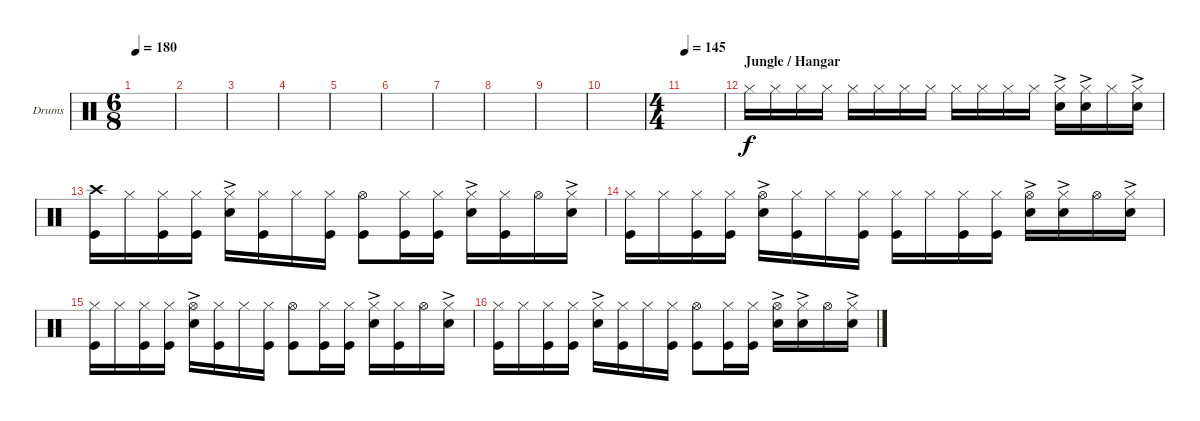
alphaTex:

\defaultSystemsLayout 4
\bracketExtendMode groupsimilarinstruments
\firstSystemTrackNameOrientation horizontal
\otherSystemsTrackNameOrientation horizontal
\track ("Drumkit" "Drums") {instrument percussion}
\staff {score}
\articulation defaults
\ts (6 8)
\tempo 180
\clef neutral
\ks c
|
|
|
|
|
|
|
|
|
|
\ts (4 4)
\tempo 145
|
\section ("" "Jungle / Hangar")
"Hi-Hat (closed)".16 "Hi-Hat (closed)".16 "Hi-Hat (closed)".16 "Hi-Hat (closed)".16 "Hi-Hat (closed)".16 "Hi-Hat (closed)".16 "Hi-Hat (closed)".16 "Hi-Hat (closed)".16 "Hi-Hat (closed)".16 "Hi-Hat (closed)".16 "Hi-Hat (closed)".16 "Hi-Hat (closed)".16 ("Hi-Hat (closed)" "Snare (hit) 2"{ac}).16 ("Hi-Hat (closed)" "Snare (hit) 2"{ac}).16 "Hi-Hat (closed)".16 ("Hi-Hat (closed)" "Snare (hit) 2"{ac}).16 |
("Kick (hit)" "Crash high (hit)").16 "Hi-Hat (closed)".16 ("Kick (hit)" "Hi-Hat (closed)").16 ("Kick (hit)" "Hi-Hat (closed)").16 ("Snare (hit) 2"{ac} "Hi-Hat (closed)").16 ("Kick (hit)" "Hi-Hat (closed)").16 "Hi-Hat (closed)".16 ("Kick (hit)" "Hi-Hat (closed)").16 ("Kick (hit)" "Hi-Hat (open)").8 ("Kick (hit)" "Hi-Hat (closed)").16 ("Kick (hit)" "Hi-Hat (closed)").16 ("Snare (hit) 2"{ac} "Hi-Hat (closed)").16 ("Kick (hit)" "Hi-Hat (closed)").16 "Hi-Hat (open)".16 ("Snare (hit) 2"{ac} "Hi-Hat (closed)").16 |
("Kick (hit)" "Hi-Hat (closed)").16 "Hi-Hat (closed)".16 ("Kick (hit)" "Hi-Hat (closed)").16 ("Kick (hit)" "Hi-Hat (closed)").16 ("Snare (hit) 2"{ac} "Hi-Hat (open)").16 ("Kick (hit)" "Hi-Hat (closed)").16 "Hi-Hat (closed)".16 ("Kick (hit)" "Hi-Hat (closed)").16 ("Kick (hit)" "Hi-Hat (closed)").16 "Hi-Hat (closed)".16 ("Kick (hit)" "Hi-Hat (closed)").16 ("Kick (hit)" "Hi-Hat (closed)").16 ("Snare (hit) 2"{ac} "Hi-Hat (open)").16 ("Hi-Hat (closed)" "Snare (hit) 2"{ac}).16 "Hi-Hat (open)".16 ("Snare (hit) 2"{ac} "Hi-Hat (closed)").16 |
("Kick (hit)" "Hi-Hat (closed)").16 "Hi-Hat (closed)".16 ("Kick (hit)" "Hi-Hat (closed)").16 ("Kick (hit)" "Hi-Hat (closed)").16 ("Snare (hit) 2"{ac} "Hi-Hat (open)").16 ("Kick (hit)" "Hi-Hat (closed)").16 "Hi-Hat (closed)".16 ("Kick (hit)" "Hi-Hat (closed)").16 ("Kick (hit)" "Hi-Hat (open)").8 ("Kick (hit)" "Hi-Hat (closed)").16 ("Kick (hit)" "Hi-Hat (closed)").16 ("Snare (hit) 2"{ac} "Hi-Hat (closed)").16 ("Kick (hit)" "Hi-Hat (closed)").16 "Hi-Hat (open)".16 ("Snare (hit) 2"{ac} "Hi-Hat (closed)").16 |
("Kick (hit)" "Hi-Hat (closed)").16 "Hi-Hat (closed)".16 ("Kick (hit)" "Hi-Hat (closed)").16 ("Kick (hit)" "Hi-Hat (closed)").16 ("Snare (hit) 2"{ac} "Hi-Hat (closed)").16 ("Kick (hit)" "Hi-Hat (closed)").16 "Hi-Hat (closed)".16 ("Kick (hit)" "Hi-Hat (closed)").16 ("Kick (hit)" "Hi-Hat (open)").8 ("Kick (hit)" "Hi-Hat (closed)").16 ("Kick (hit)" "Hi-Hat (closed)").16 ("Snare (hit) 2"{ac} "Hi-Hat (open)").16 ("Hi-Hat (closed)" "Snare (hit) 2"{ac}).16 "Hi-Hat (open)".16 ("Snare (hit) 2"{ac} "Hi-Hat (closed)").16
